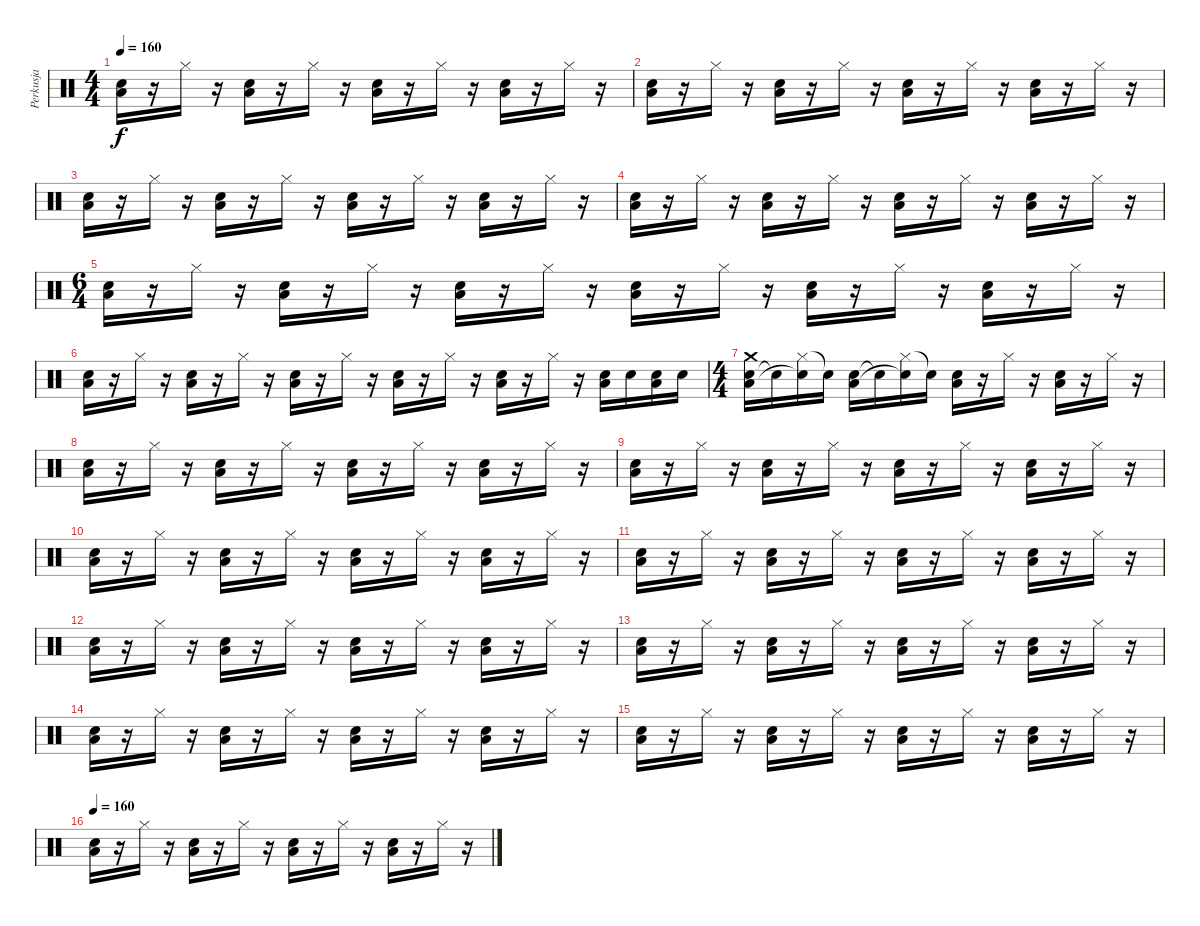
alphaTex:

\track ("Perkusja" "Perkusja") {instrument percussion}
\staff {score}
\articulation defaults
\ts (4 4)
\tempo 160
\clef neutral
\ks c
("Snare (hit) 2" "Low Tom (hit)").16{dy f} r.16 "Hi-Hat (closed)".16 r.16 ("Snare (hit) 2" "Low Tom (hit)").16 r.16 "Hi-Hat (closed)".16 r.16 ("Snare (hit) 2" "Low Tom (hit)").16 r.16 "Hi-Hat (closed)".16 r.16 ("Snare (hit) 2" "Low Tom (hit)").16 r.16 "Hi-Hat (closed)".16 r.16 |
("Snare (hit) 2" "Low Tom (hit)").16 r.16 "Hi-Hat (closed)".16 r.16 ("Snare (hit) 2" "Low Tom (hit)").16 r.16 "Hi-Hat (closed)".16 r.16 ("Snare (hit) 2" "Low Tom (hit)").16 r.16 "Hi-Hat (closed)".16 r.16 ("Snare (hit) 2" "Low Tom (hit)").16 r.16 "Hi-Hat (closed)".16 r.16 |
("Snare (hit) 2" "Low Tom (hit)").16 r.16 "Hi-Hat (closed)".16 r.16 ("Snare (hit) 2" "Low Tom (hit)").16 r.16 "Hi-Hat (closed)".16 r.16 ("Snare (hit) 2" "Low Tom (hit)").16 r.16 "Hi-Hat (closed)".16 r.16 ("Snare (hit) 2" "Low Tom (hit)").16 r.16 "Hi-Hat (closed)".16 r.16 |
("Snare (hit) 2" "Low Tom (hit)").16 r.16 "Hi-Hat (closed)".16 r.16 ("Snare (hit) 2" "Low Tom (hit)").16 r.16 "Hi-Hat (closed)".16 r.16 ("Snare (hit) 2" "Low Tom (hit)").16 r.16 "Hi-Hat (closed)".16 r.16 ("Snare (hit) 2" "Low Tom (hit)").16 r.16 "Hi-Hat (closed)".16 r.16 |
\ts (6 4)
("Snare (hit) 2" "Low Tom (hit)").16 r.16 "Hi-Hat (closed)".16 r.16 ("Snare (hit) 2" "Low Tom (hit)").16 r.16 "Hi-Hat (closed)".16 r.16 ("Snare (hit) 2" "Low Tom (hit)").16 r.16 "Hi-Hat (closed)".16 r.16 ("Snare (hit) 2" "Low Tom (hit)").16 r.16 "Hi-Hat (closed)".16 r.16 ("Snare (hit) 2" "Low Tom (hit)").16 r.16 "Hi-Hat (closed)".16 r.16 ("Snare (hit) 2" "Low Tom (hit)").16 r.16 "Hi-Hat (closed)".16 r.16 |
("Snare (hit) 2" "Low Tom (hit)").16 r.16 "Hi-Hat (closed)".16 r.16 ("Snare (hit) 2" "Low Tom (hit)").16 r.16 "Hi-Hat (closed)".16 r.16 ("Snare (hit) 2" "Low Tom (hit)").16 r.16 "Hi-Hat (closed)".16 r.16 ("Snare (hit) 2" "Low Tom (hit)").16 r.16 "Hi-Hat (closed)".16 r.16 ("Snare (hit) 2" "Low Tom (hit)").16 r.16 "Hi-Hat (closed)".16 r.16 ("Snare (hit) 2" "Low Tom (hit)").16 "Snare (hit) 2".16 ("Snare (hit) 2" "Low Tom (hit)").16 "Snare (hit) 2".16 |
\ts (4 4)
("Snare (hit) 2" "Low Tom (hit)" "Crash medium (hit)").16 "Snare (hit)"{t}.16 ("Hi-Hat (closed)" "Snare (hit)"{t}).16 "Snare (hit)"{t}.16 ("Snare (hit) 2" "Low Tom (hit)").16 "Snare (hit)"{t}.16 ("Hi-Hat (closed)" "Snare (hit)"{t}).16 "Snare (hit)"{t}.16 ("Snare (hit) 2" "Low Tom (hit)").16 r.16 "Hi-Hat (closed)".16 r.16 ("Snare (hit) 2" "Low Tom (hit)").16 r.16 "Hi-Hat (closed)".16 r.16 |
("Snare (hit) 2" "Low Tom (hit)").16 r.16 "Hi-Hat (closed)".16 r.16 ("Snare (hit) 2" "Low Tom (hit)").16 r.16 "Hi-Hat (closed)".16 r.16 ("Snare (hit) 2" "Low Tom (hit)").16 r.16 "Hi-Hat (closed)".16 r.16 ("Snare (hit) 2" "Low Tom (hit)").16 r.16 "Hi-Hat (closed)".16 r.16 |
("Snare (hit) 2" "Low Tom (hit)").16 r.16 "Hi-Hat (closed)".16 r.16 ("Snare (hit) 2" "Low Tom (hit)").16 r.16 "Hi-Hat (closed)".16 r.16 ("Snare (hit) 2" "Low Tom (hit)").16 r.16 "Hi-Hat (closed)".16 r.16 ("Snare (hit) 2" "Low Tom (hit)").16 r.16 "Hi-Hat (closed)".16 r.16 |
("Snare (hit) 2" "Low Tom (hit)").16 r.16 "Hi-Hat (closed)".16 r.16 ("Snare (hit) 2" "Low Tom (hit)").16 r.16 "Hi-Hat (closed)".16 r.16 ("Snare (hit) 2" "Low Tom (hit)").16 r.16 "Hi-Hat (closed)".16 r.16 ("Snare (hit) 2" "Low Tom (hit)").16 r.16 "Hi-Hat (closed)".16 r.16 |
("Snare (hit) 2" "Low Tom (hit)").16 r.16 "Hi-Hat (closed)".16 r.16 ("Snare (hit) 2" "Low Tom (hit)").16 r.16 "Hi-Hat (closed)".16 r.16 ("Snare (hit) 2" "Low Tom (hit)").16 r.16 "Hi-Hat (closed)".16 r.16 ("Snare (hit) 2" "Low Tom (hit)").16 r.16 "Hi-Hat (closed)".16 r.16 |
("Snare (hit) 2" "Low Tom (hit)").16 r.16 "Hi-Hat (closed)".16 r.16 ("Snare (hit) 2" "Low Tom (hit)").16 r.16 "Hi-Hat (closed)".16 r.16 ("Snare (hit) 2" "Low Tom (hit)").16 r.16 "Hi-Hat (closed)".16 r.16 ("Snare (hit) 2" "Low Tom (hit)").16 r.16 "Hi-Hat (closed)".16 r.16 |
("Snare (hit) 2" "Low Tom (hit)").16 r.16 "Hi-Hat (closed)".16 r.16 ("Snare (hit) 2" "Low Tom (hit)").16 r.16 "Hi-Hat (closed)".16 r.16 ("Snare (hit) 2" "Low Tom (hit)").16 r.16 "Hi-Hat (closed)".16 r.16 ("Snare (hit) 2" "Low Tom (hit)").16 r.16 "Hi-Hat (closed)".16 r.16 |
("Snare (hit) 2" "Low Tom (hit)").16 r.16 "Hi-Hat (closed)".16 r.16 ("Snare (hit) 2" "Low Tom (hit)").16 r.16 "Hi-Hat (closed)".16 r.16 ("Snare (hit) 2" "Low Tom (hit)").16 r.16 "Hi-Hat (closed)".16 r.16 ("Snare (hit) 2" "Low Tom (hit)").16 r.16 "Hi-Hat (closed)".16 r.16 |
("Snare (hit) 2" "Low Tom (hit)").16 r.16 "Hi-Hat (closed)".16 r.16 ("Snare (hit) 2" "Low Tom (hit)").16 r.16 "Hi-Hat (closed)".16 r.16 ("Snare (hit) 2" "Low Tom (hit)").16 r.16 "Hi-Hat (closed)".16 r.16 ("Snare (hit) 2" "Low Tom (hit)").16 r.16 "Hi-Hat (closed)".16 r.16 |
\tempo 160
("Snare (hit) 2" "Low Tom (hit)").16 r.16 "Hi-Hat (closed)".16 r.16 ("Snare (hit) 2" "Low Tom (hit)").16 r.16 "Hi-Hat (closed)".16 r.16 ("Snare (hit) 2" "Low Tom (hit)").16 r.16 "Hi-Hat (closed)".16 r.16 ("Snare (hit) 2" "Low Tom (hit)").16 r.16 "Hi-Hat (closed)".16 r.16
